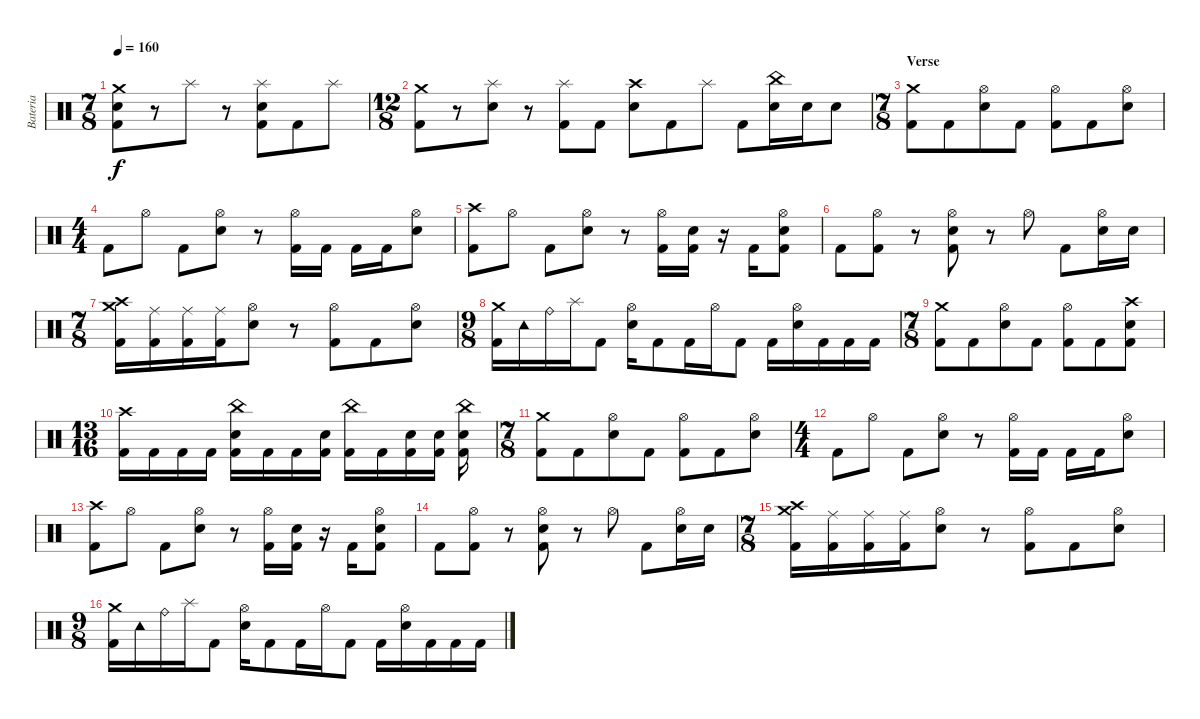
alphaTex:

\track ("Bateria" "Bateria") {instrument percussion}
\staff {score}
\articulation defaults
\ts (7 8)
\tempo 160
\clef neutral
\ks c
("Crash medium (hit)" "Electric Snare (hit)" "Kick (hit) 2").8{dy f} r.8 "Splash (hit)".8 r.8 ("Splash (hit)" "Electric Snare (hit)" "Kick (hit) 2").8 "Kick (hit) 2".8 "Splash (hit)".8 |
\ts (12 8)
("Crash medium (hit)" "Kick (hit) 2").8 r.8 ("Splash (hit)" "Electric Snare (hit)").8 r.8 ("Splash (hit)" "Kick (hit) 2").8 "Kick (hit) 2".8 ("Crash high (hit)" "Electric Snare (hit)").8 "Kick (hit) 2".8 "Splash (hit)".8 "Kick (hit) 2".8 ("China (hit)" "Electric Snare (hit)").16 "Electric Snare (hit)".16 "Electric Snare (hit)".8 |
\ts (7 8)
\section ("" "Verse")
("Crash medium (hit)" "Kick (hit) 2").8 "Kick (hit) 2".8 ("Hi-Hat (open)" "Electric Snare (hit)").8 "Kick (hit) 2".8 ("Hi-Hat (open)" "Kick (hit) 2").8 "Kick (hit) 2".8 ("Hi-Hat (open)" "Electric Snare (hit)").8 |
\ts (4 4)
"Kick (hit) 2".8 "Hi-Hat (open)".8 "Kick (hit) 2".8 ("Hi-Hat (open)" "Electric Snare (hit)").8 r.8 ("Hi-Hat (open)" "Kick (hit) 2").16 "Kick (hit) 2".16 "Kick (hit) 2".16 "Kick (hit) 2".16 ("Hi-Hat (open)" "Electric Snare (hit)").8 |
("Crash high (hit)" "Kick (hit) 2").8 "Hi-Hat (open)".8 "Kick (hit) 2".8 ("Hi-Hat (open)" "Electric Snare (hit)").8 r.8 ("Hi-Hat (open)" "Kick (hit) 2").16 ("Electric Snare (hit)" "Kick (hit) 2").16 r.16 "Kick (hit) 2".16 ("Hi-Hat (open)" "Electric Snare (hit)" "Kick (hit) 2").8 |
"Kick (hit) 2".8 ("Hi-Hat (open)" "Kick (hit) 2").8 r.8 ("Hi-Hat (open)" "Electric Snare (hit)" "Kick (hit) 2").8 r.8 "Hi-Hat (open)".8 "Kick (hit) 2".8 ("Hi-Hat (open)" "Electric Snare (hit)").16 "Electric Snare (hit)".16 |
\ts (7 8)
("Crash medium (hit)" "Crash high (hit)" "Kick (hit) 2").16 ("Ride (middle)" "Kick (hit) 2").16 ("Ride (middle)" "Kick (hit) 2").16 ("Ride (middle)" "Kick (hit) 2").16 ("Hi-Hat (open)" "Electric Snare (hit)").8 r.8 ("Hi-Hat (open)" "Kick (hit) 2").8 "Kick (hit) 2".8 ("Hi-Hat (open)" "Electric Snare (hit)").8 |
\ts (9 8)
("Crash medium (hit)" "Kick (hit) 2").16 "Tambourine (hit)".16 "Ride (bell)".16 "Splash (hit)".16 "Kick (hit) 2".8 ("Hi-Hat (open)" "Electric Snare (hit)").16 "Kick (hit) 2".8 "Kick (hit) 2".16 "Hi-Hat (open)".16 "Kick (hit) 2".8 "Kick (hit) 2".16 ("Hi-Hat (open)" "Electric Snare (hit)").16 "Kick (hit) 2".16 "Kick (hit) 2".16 "Kick (hit) 2".16 |
\ts (7 8)
("Crash medium (hit)" "Kick (hit) 2").8 "Kick (hit) 2".8 ("Hi-Hat (open)" "Electric Snare (hit)").8 "Kick (hit) 2".8 ("Hi-Hat (open)" "Kick (hit) 2").8 "Kick (hit) 2".8 ("Crash high (hit)" "Electric Snare (hit)" "Kick (hit) 2").8 |
\ts (13 16)
("Crash high (hit)" "Kick (hit) 2").16 "Kick (hit) 2".16 "Kick (hit) 2".16 "Kick (hit) 2".16 ("China (hit)" "Electric Snare (hit)" "Kick (hit) 2").16 "Kick (hit) 2".16 "Kick (hit) 2".16 ("Electric Snare (hit)" "Kick (hit) 2").16 ("China (hit)" "Kick (hit) 2").16 "Kick (hit) 2".16 ("Electric Snare (hit)" "Kick (hit) 2").16 ("Electric Snare (hit)" "Kick (hit) 2").16 ("China (hit)" "Electric Snare (hit)" "Kick (hit) 2").16 |
\ts (7 8)
("Crash medium (hit)" "Kick (hit) 2").8 "Kick (hit) 2".8 ("Hi-Hat (open)" "Electric Snare (hit)").8 "Kick (hit) 2".8 ("Hi-Hat (open)" "Kick (hit) 2").8 "Kick (hit) 2".8 ("Hi-Hat (open)" "Electric Snare (hit)").8 |
\ts (4 4)
"Kick (hit) 2".8 "Hi-Hat (open)".8 "Kick (hit) 2".8 ("Hi-Hat (open)" "Electric Snare (hit)").8 r.8 ("Hi-Hat (open)" "Kick (hit) 2").16 "Kick (hit) 2".16 "Kick (hit) 2".16 "Kick (hit) 2".16 ("Hi-Hat (open)" "Electric Snare (hit)").8 |
("Crash high (hit)" "Kick (hit) 2").8 "Hi-Hat (open)".8 "Kick (hit) 2".8 ("Hi-Hat (open)" "Electric Snare (hit)").8 r.8 ("Hi-Hat (open)" "Kick (hit) 2").16 ("Electric Snare (hit)" "Kick (hit) 2").16 r.16 "Kick (hit) 2".16 ("Hi-Hat (open)" "Electric Snare (hit)" "Kick (hit) 2").8 |
"Kick (hit) 2".8 ("Hi-Hat (open)" "Kick (hit) 2").8 r.8 ("Hi-Hat (open)" "Electric Snare (hit)" "Kick (hit) 2").8 r.8 "Hi-Hat (open)".8 "Kick (hit) 2".8 ("Hi-Hat (open)" "Electric Snare (hit)").16 "Electric Snare (hit)".16 |
\ts (7 8)
("Crash medium (hit)" "Crash high (hit)" "Kick (hit) 2").16 ("Ride (middle)" "Kick (hit) 2").16 ("Ride (middle)" "Kick (hit) 2").16 ("Ride (middle)" "Kick (hit) 2").16 ("Hi-Hat (open)" "Electric Snare (hit)").8 r.8 ("Hi-Hat (open)" "Kick (hit) 2").8 "Kick (hit) 2".8 ("Hi-Hat (open)" "Electric Snare (hit)").8 |
\ts (9 8)
("Crash medium (hit)" "Kick (hit) 2").16 "Tambourine (hit)".16 "Ride (bell)".16 "Splash (hit)".16 "Kick (hit) 2".8 ("Hi-Hat (open)" "Electric Snare (hit)").16 "Kick (hit) 2".8 "Kick (hit) 2".16 "Hi-Hat (open)".16 "Kick (hit) 2".8 "Kick (hit) 2".16 ("Hi-Hat (open)" "Electric Snare (hit)").16 "Kick (hit) 2".16 "Kick (hit) 2".16 "Kick (hit) 2".16
